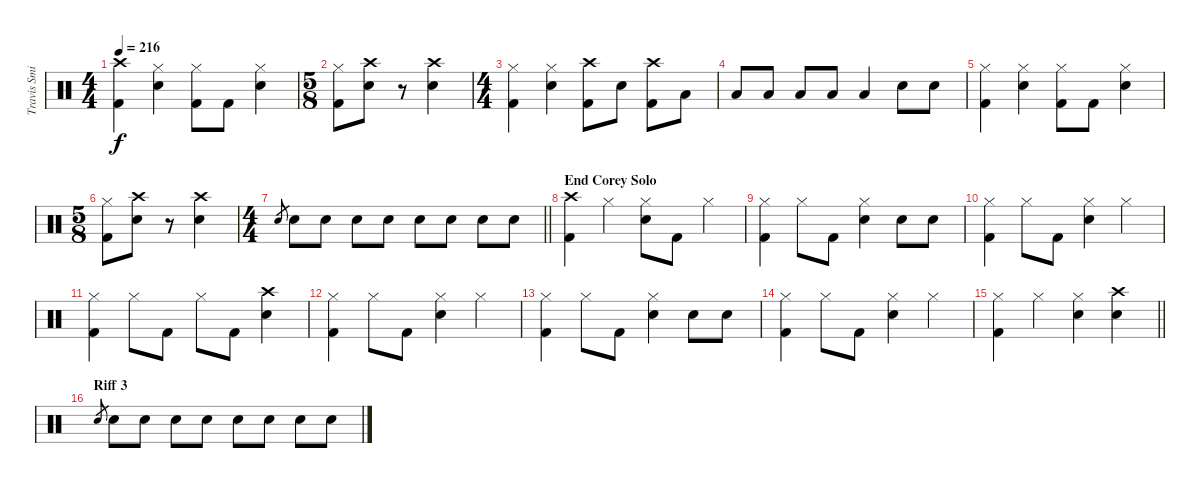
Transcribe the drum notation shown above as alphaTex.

\track ("Travis Smith (Drums)" "Travis Smi") {instrument percussion}
\staff {score}
\articulation defaults
\ts (4 4)
\tempo 216
\clef neutral
\ks c
("Crash high (hit)" "Kick (hit) 2").4{dy f} ("Hi-Hat (closed)" "Electric Snare (hit)").4 ("Hi-Hat (closed)" "Kick (hit) 2").8 "Kick (hit) 2".8 ("Hi-Hat (closed)" "Electric Snare (hit)").4 |
\ts (5 8)
("Hi-Hat (closed)" "Kick (hit) 2").8 ("Crash high (hit)" "Electric Snare (hit)").8 r.8 ("Crash high (hit)" "Electric Snare (hit)").4 |
\ts (4 4)
("Hi-Hat (closed)" "Kick (hit) 2").4 ("Hi-Hat (closed)" "Electric Snare (hit)").4 ("Crash high (hit)" "Kick (hit) 2").8 "Electric Snare (hit)".8 ("Crash high (hit)" "Kick (hit) 2").8 "Low Floor Tom (hit)".8 |
"Low Floor Tom (hit)".8 "Low Floor Tom (hit)".8 "Low Floor Tom (hit)".8 "Low Floor Tom (hit)".8 "Low Floor Tom (hit)".4 "Electric Snare (hit)".8 "Electric Snare (hit)".8 |
("Hi-Hat (closed)" "Kick (hit) 2").4 ("Hi-Hat (closed)" "Electric Snare (hit)").4 ("Hi-Hat (closed)" "Kick (hit) 2").8 "Kick (hit) 2".8 ("Hi-Hat (closed)" "Electric Snare (hit)").4 |
\ts (5 8)
("Hi-Hat (closed)" "Kick (hit) 2").8 ("Crash high (hit)" "Electric Snare (hit)").8 r.8 ("Crash high (hit)" "Electric Snare (hit)").4 |
\ts (4 4)
\barLineRight lightlight "Electric Snare (hit)".8{gr} "Electric Snare (hit)".8 "Electric Snare (hit)".8 "Electric Snare (hit)".8 "Electric Snare (hit)".8 "Electric Snare (hit)".8 "Electric Snare (hit)".8 "Electric Snare (hit)".8 "Electric Snare (hit)".8
|
\section ("" "End Corey Solo")
("Crash high (hit)" "Kick (hit) 2").4 "Hi-Hat (closed)".4 ("Hi-Hat (closed)" "Electric Snare (hit)").8 "Kick (hit) 2".8 "Hi-Hat (closed)".4 |
("Hi-Hat (closed)" "Kick (hit) 2").4 "Hi-Hat (closed)".8 "Kick (hit) 2".8 ("Hi-Hat (closed)" "Electric Snare (hit)").4 "Electric Snare (hit)".8 "Electric Snare (hit)".8 |
("Hi-Hat (closed)" "Kick (hit) 2").4 "Hi-Hat (closed)".8 "Kick (hit) 2".8 ("Hi-Hat (closed)" "Electric Snare (hit)").4 "Hi-Hat (closed)".4 |
("Hi-Hat (closed)" "Kick (hit) 2").4 "Hi-Hat (closed)".8 "Kick (hit) 2".8 "Hi-Hat (closed)".8 "Kick (hit) 2".8 ("Crash high (hit)" "Electric Snare (hit)").4 |
("Hi-Hat (closed)" "Kick (hit) 2").4 "Hi-Hat (closed)".8 "Kick (hit) 2".8 ("Hi-Hat (closed)" "Electric Snare (hit)").4 "Hi-Hat (closed)".4 |
("Hi-Hat (closed)" "Kick (hit) 2").4 "Hi-Hat (closed)".8 "Kick (hit) 2".8 ("Hi-Hat (closed)" "Electric Snare (hit)").4 "Electric Snare (hit)".8 "Electric Snare (hit)".8 |
("Hi-Hat (closed)" "Kick (hit) 2").4 "Hi-Hat (closed)".8 "Kick (hit) 2".8 ("Hi-Hat (closed)" "Electric Snare (hit)").4 "Hi-Hat (closed)".4 |
\barLineRight lightlight
("Hi-Hat (closed)" "Kick (hit) 2").4 "Hi-Hat (closed)".4 ("Hi-Hat (closed)" "Electric Snare (hit)").4 ("Crash high (hit)" "Electric Snare (hit)").4 |
\section ("" "Riff 3")
"Electric Snare (hit)".8{gr} "Electric Snare (hit)".8 "Electric Snare (hit)".8 "Electric Snare (hit)".8 "Electric Snare (hit)".8 "Electric Snare (hit)".8 "Electric Snare (hit)".8 "Electric Snare (hit)".8 "Electric Snare (hit)".8
